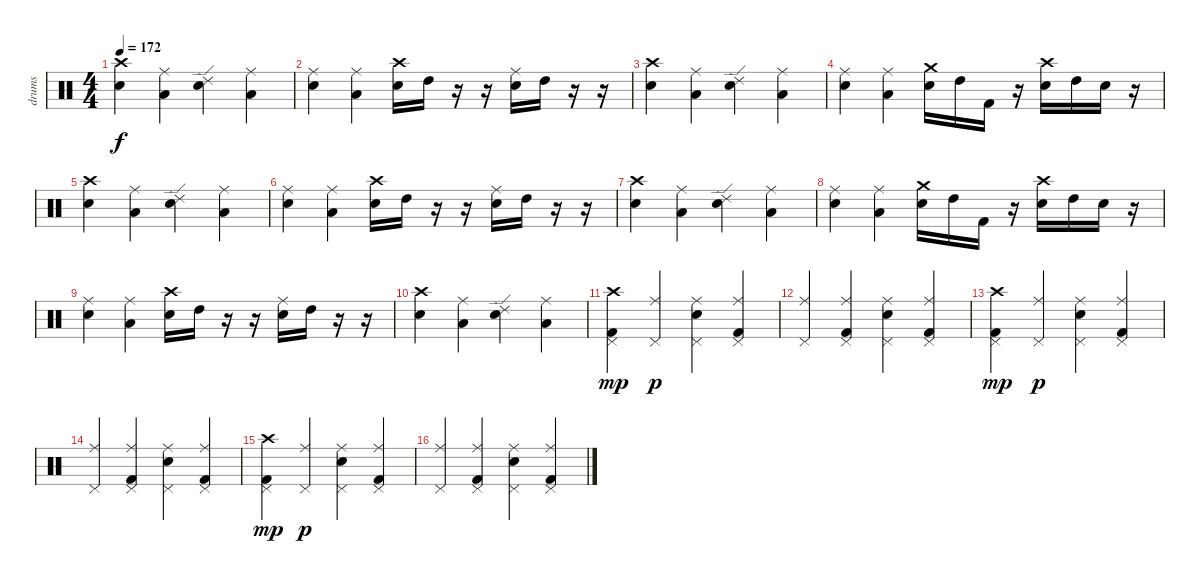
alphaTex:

\track ("drums" "drums") {instrument percussion}
\staff {score}
\articulation defaults
\ts (4 4)
\tempo 172
\clef neutral
\ks c
("Crash high (hit)" "Snare (hit) 2").4{dy f} ("Ride (middle)" "Low Tom (hit)").4 ("Ride (edge) 2" "Snare (hit) 2").4 ("Ride (middle)" "Low Tom (hit)").4 |
("Ride (middle)" "Snare (hit) 2").4 ("Ride (middle)" "Low Tom (hit)").4 ("Crash high (hit)" "Snare (hit) 2").16 "High Tom (hit)".16 r.16 r.16 ("Ride (middle)" "Snare (hit) 2").16 "High Tom (hit)".16 r.16 r.16 |
("Crash high (hit)" "Snare (hit) 2").4 ("Ride (middle)" "Low Tom (hit)").4 ("Ride (edge) 2" "Snare (hit) 2").4 ("Ride (middle)" "Low Tom (hit)").4 |
("Ride (middle)" "Snare (hit) 2").4 ("Ride (middle)" "Low Tom (hit)").4 ("Crash medium (hit)" "Snare (hit) 2").16 "High Tom (hit)".16 "Kick (hit) 2".16 r.16 ("Crash high (hit)" "Snare (hit) 2").16 "High Tom (hit)".16 "Snare (hit) 2".16 r.16 |
("Crash high (hit)" "Snare (hit) 2").4 ("Ride (middle)" "Low Tom (hit)").4 ("Ride (edge) 2" "Snare (hit) 2").4 ("Ride (middle)" "Low Tom (hit)").4 |
("Ride (middle)" "Snare (hit) 2").4 ("Ride (middle)" "Low Tom (hit)").4 ("Crash high (hit)" "Snare (hit) 2").16 "High Tom (hit)".16 r.16 r.16 ("Ride (middle)" "Snare (hit) 2").16 "High Tom (hit)".16 r.16 r.16 |
("Crash high (hit)" "Snare (hit) 2").4 ("Ride (middle)" "Low Tom (hit)").4 ("Ride (edge) 2" "Snare (hit) 2").4 ("Ride (middle)" "Low Tom (hit)").4 |
("Ride (middle)" "Snare (hit) 2").4 ("Ride (middle)" "Low Tom (hit)").4 ("Crash medium (hit)" "Snare (hit) 2").16 "High Tom (hit)".16 "Kick (hit) 2".16 r.16 ("Crash high (hit)" "Snare (hit) 2").16 "High Tom (hit)".16 "Snare (hit) 2".16 r.16 |
("Ride (middle)" "Snare (hit) 2").4 ("Ride (middle)" "Low Tom (hit)").4 ("Crash high (hit)" "Snare (hit) 2").16 "High Tom (hit)".16 r.16 r.16 ("Ride (middle)" "Snare (hit) 2").16 "High Tom (hit)".16 r.16 r.16 |
("Crash high (hit)" "Snare (hit) 2").4 ("Ride (middle)" "Low Tom (hit)").4 ("Ride (edge) 2" "Snare (hit) 2").4 ("Ride (middle)" "Low Tom (hit)").4 |
("Crash high (hit)" "Kick (hit) 2" "Pedal Hi-Hat (hit)").4{dy mp} ("Ride (middle)" "Pedal Hi-Hat (hit)").4{dy p} ("Ride (middle)" "Electric Snare (hit)" "Pedal Hi-Hat (hit)").4 ("Ride (middle)" "Kick (hit) 2" "Pedal Hi-Hat (hit)").4 |
("Ride (middle)" "Pedal Hi-Hat (hit)").4 ("Ride (middle)" "Kick (hit) 2" "Pedal Hi-Hat (hit)").4 ("Ride (middle)" "Electric Snare (hit)" "Pedal Hi-Hat (hit)").4 ("Ride (middle)" "Kick (hit) 2" "Pedal Hi-Hat (hit)").4 |
("Crash high (hit)" "Kick (hit) 2" "Pedal Hi-Hat (hit)").4{dy mp} ("Ride (middle)" "Pedal Hi-Hat (hit)").4{dy p} ("Ride (middle)" "Electric Snare (hit)" "Pedal Hi-Hat (hit)").4 ("Ride (middle)" "Kick (hit) 2" "Pedal Hi-Hat (hit)").4 |
("Ride (middle)" "Pedal Hi-Hat (hit)").4 ("Ride (middle)" "Kick (hit) 2" "Pedal Hi-Hat (hit)").4 ("Ride (middle)" "Electric Snare (hit)" "Pedal Hi-Hat (hit)").4 ("Ride (middle)" "Kick (hit) 2" "Pedal Hi-Hat (hit)").4 |
("Crash high (hit)" "Kick (hit) 2" "Pedal Hi-Hat (hit)").4{dy mp} ("Ride (middle)" "Pedal Hi-Hat (hit)").4{dy p} ("Ride (middle)" "Electric Snare (hit)" "Pedal Hi-Hat (hit)").4 ("Ride (middle)" "Kick (hit) 2" "Pedal Hi-Hat (hit)").4 |
("Ride (middle)" "Pedal Hi-Hat (hit)").4 ("Ride (middle)" "Kick (hit) 2" "Pedal Hi-Hat (hit)").4 ("Ride (middle)" "Electric Snare (hit)" "Pedal Hi-Hat (hit)").4 ("Ride (middle)" "Kick (hit) 2" "Pedal Hi-Hat (hit)").4
